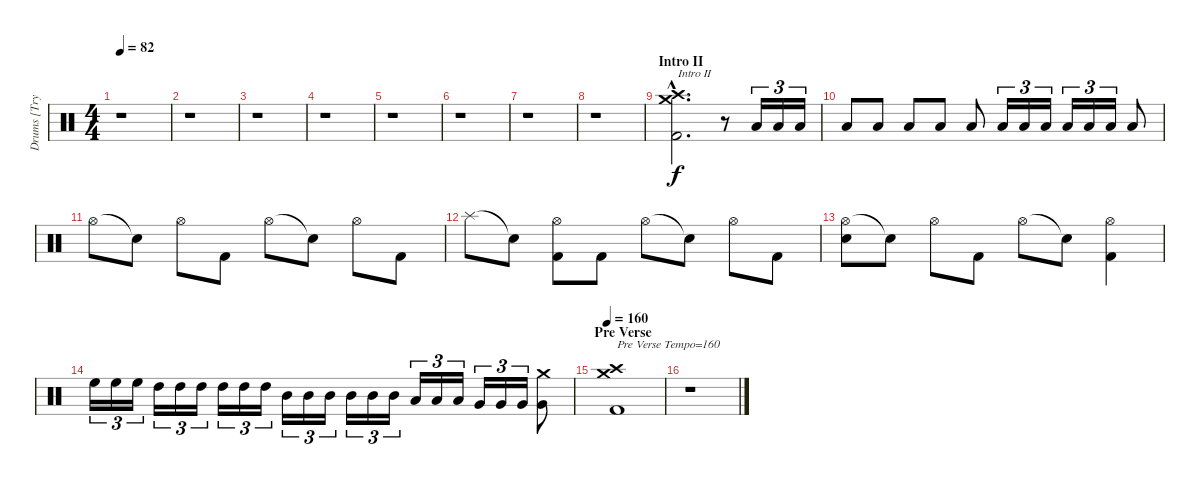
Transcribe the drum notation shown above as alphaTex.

\track ("Drums [Trym]" "Drums [Try") {instrument percussion}
\staff {score}
\articulation defaults
\ts (4 4)
\tempo 82
\clef neutral
\ks c
r.1{dy f} |
r.1 |
r.1 |
r.1 |
r.1 |
r.1 |
r.1 |
r.1 |
\section ("" "Intro II")
("Crash medium (hit)"{hac} "Crash high (hit)"{hac} "Kick (hit) 2"{hac}).2{d txt "Intro II"} r.8 "Low Tom (hit)".16{tu (3 2)} "Low Tom (hit)".16{tu (3 2)} "Low Tom (hit)".16{tu (3 2)} |
"Low Tom (hit)".8 "Low Tom (hit)".8 "Low Tom (hit)".8 "Low Tom (hit)".8 "Low Tom (hit)".8 "Low Tom (hit)".16{tu (3 2)} "Low Tom (hit)".16{tu (3 2)} "Low Tom (hit)".16{tu (3 2)} "Low Tom (hit)".16{tu (3 2)} "Low Tom (hit)".16{tu (3 2)} "Low Tom (hit)".16{tu (3 2)} "Low Tom (hit)".8 |
"Hi-Hat (open)".8 "Snare (hit)"{t}.8 "Hi-Hat (open)".8 "Kick (hit) 2".8 "Hi-Hat (open)".8 "Snare (hit)"{t}.8 "Hi-Hat (open)".8 "Kick (hit) 2".8 |
"Splash (hit)".8 "Snare (hit)"{t}.8 ("Hi-Hat (open)" "Kick (hit) 2").8 "Kick (hit) 2".8 "Hi-Hat (open)".8 "Snare (hit)"{t}.8 "Hi-Hat (open)".8 "Kick (hit) 2".8 |
("Hi-Hat (open)" "Electric Snare (hit)").8 "Snare (hit)"{t}.8 "Hi-Hat (open)".8 "Kick (hit) 2".8 "Hi-Hat (open)".8 "Snare (hit)"{t}.8 ("Hi-Hat (open)" "Kick (hit) 2").4 |
"High Floor Tom (hit)".16{tu (3 2)} "High Floor Tom (hit)".16{tu (3 2)} "High Floor Tom (hit)".16{tu (3 2)} "High Tom (hit)".16{tu (3 2)} "High Tom (hit)".16{tu (3 2)} "High Tom (hit)".16{tu (3 2)} "High Tom (hit)".16{tu (3 2)} "High Tom (hit)".16{tu (3 2)} "High Tom (hit)".16{tu (3 2)} "Mid Tom (hit)".16{tu (3 2)} "Mid Tom (hit)".16{tu (3 2)} "Mid Tom (hit)".16{tu (3 2)} "Mid Tom (hit)".16{tu (3 2)} "Mid Tom (hit)".16{tu (3 2)} "Mid Tom (hit)".16{tu (3 2)} "Low Tom (hit)".16{tu (3 2)} "Low Tom (hit)".16{tu (3 2)} "Low Tom (hit)".16{tu (3 2)} "Very Low Tom (hit)".16{tu (3 2)} "Very Low Tom (hit)".16{tu (3 2)} "Very Low Tom (hit)".16{tu (3 2)} ("Crash medium (hit)" "Very Low Tom (hit)").8 |
\section ("" "Pre Verse")
\tempo 160
("Crash medium (hit)" "Crash high (hit)" "Kick (hit) 2").1{txt "Pre Verse Tempo=160"} |
r.1
